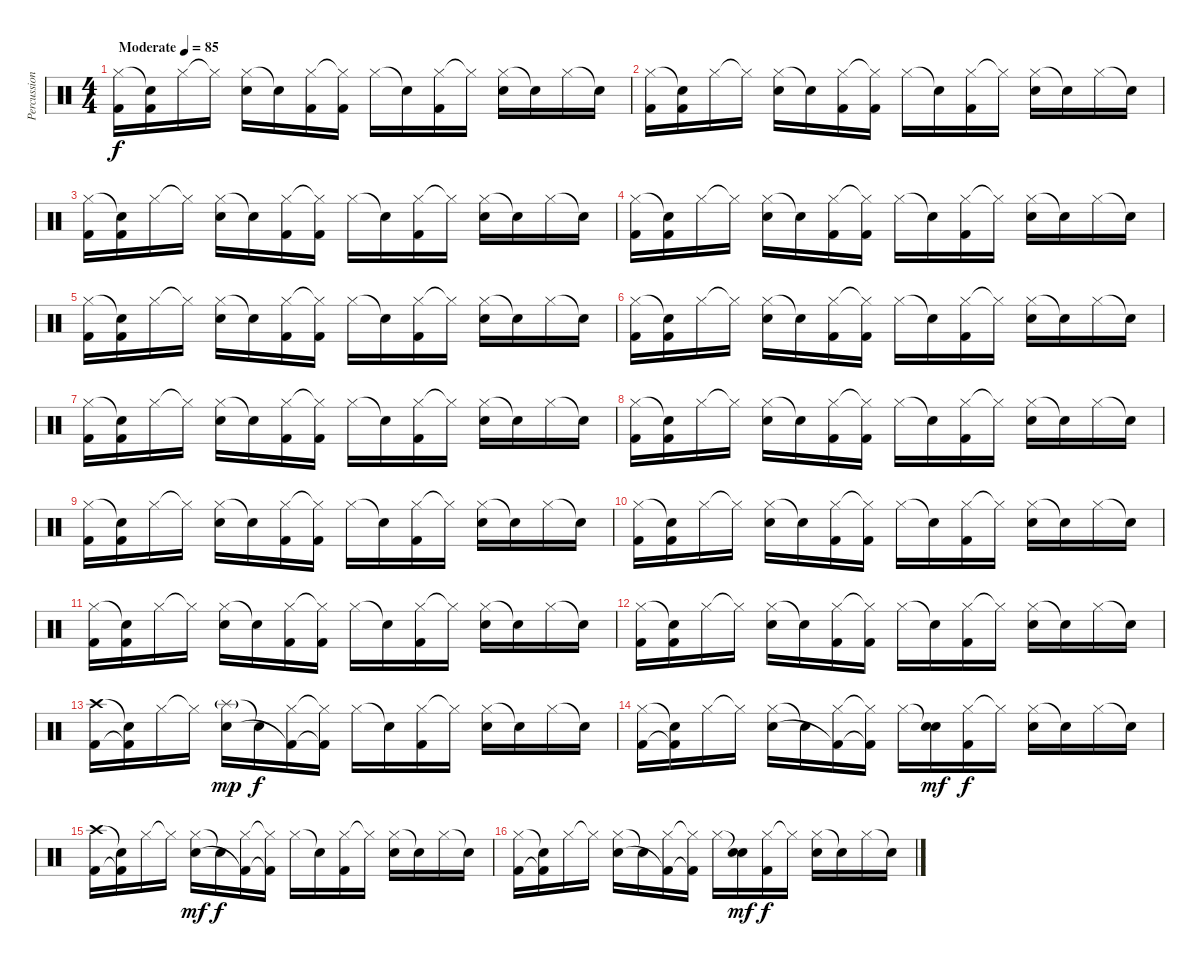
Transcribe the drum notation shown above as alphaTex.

\track ("Percussion" "Percussion") {instrument percussion}
\staff {score}
\articulation defaults
\ts (4 4)
\tempo (85 "Moderate")
\clef neutral
\ks c
("Hi-Hat (closed)" "Kick (hit) 2").16{dy f} ("Snare (hit)"{t} "Kick (hit) 2").16 "Hi-Hat (closed)".16 "Hi-Hat (closed)"{t}.16 ("Hi-Hat (closed)" "Snare (hit) 2").16 "Snare (hit)"{t}.16 ("Hi-Hat (closed)" "Kick (hit) 2").16 ("Hi-Hat (closed)"{t} "Kick (hit) 2").16 "Hi-Hat (closed)".16 "Snare (hit)"{t}.16 ("Hi-Hat (closed)" "Kick (hit) 2").16 "Hi-Hat (closed)"{t}.16 ("Hi-Hat (closed)" "Snare (hit) 2").16 "Snare (hit)"{t}.16 "Hi-Hat (closed)".16 "Snare (hit)"{t}.16 |
("Hi-Hat (closed)" "Kick (hit) 2").16 ("Snare (hit)"{t} "Kick (hit) 2").16 "Hi-Hat (closed)".16 "Hi-Hat (closed)"{t}.16 ("Hi-Hat (closed)" "Snare (hit) 2").16 "Snare (hit)"{t}.16 ("Hi-Hat (closed)" "Kick (hit) 2").16 ("Hi-Hat (closed)"{t} "Kick (hit) 2").16 "Hi-Hat (closed)".16 "Snare (hit)"{t}.16 ("Hi-Hat (closed)" "Kick (hit) 2").16 "Hi-Hat (closed)"{t}.16 ("Hi-Hat (closed)" "Snare (hit) 2").16 "Snare (hit)"{t}.16 "Hi-Hat (closed)".16 "Snare (hit)"{t}.16 |
("Hi-Hat (closed)" "Kick (hit) 2").16 ("Snare (hit)"{t} "Kick (hit) 2").16 "Hi-Hat (closed)".16 "Hi-Hat (closed)"{t}.16 ("Hi-Hat (closed)" "Snare (hit) 2").16 "Snare (hit)"{t}.16 ("Hi-Hat (closed)" "Kick (hit) 2").16 ("Hi-Hat (closed)"{t} "Kick (hit) 2").16 "Hi-Hat (closed)".16 "Snare (hit)"{t}.16 ("Hi-Hat (closed)" "Kick (hit) 2").16 "Hi-Hat (closed)"{t}.16 ("Hi-Hat (closed)" "Snare (hit) 2").16 "Snare (hit)"{t}.16 "Hi-Hat (closed)".16 "Snare (hit)"{t}.16 |
("Hi-Hat (closed)" "Kick (hit) 2").16 ("Snare (hit)"{t} "Kick (hit) 2").16 "Hi-Hat (closed)".16 "Hi-Hat (closed)"{t}.16 ("Hi-Hat (closed)" "Snare (hit) 2").16 "Snare (hit)"{t}.16 ("Hi-Hat (closed)" "Kick (hit) 2").16 ("Hi-Hat (closed)"{t} "Kick (hit) 2").16 "Hi-Hat (closed)".16 "Snare (hit)"{t}.16 ("Hi-Hat (closed)" "Kick (hit) 2").16 "Hi-Hat (closed)"{t}.16 ("Hi-Hat (closed)" "Snare (hit) 2").16 "Snare (hit)"{t}.16 "Hi-Hat (closed)".16 "Snare (hit)"{t}.16 |
("Hi-Hat (closed)" "Kick (hit) 2").16 ("Snare (hit)"{t} "Kick (hit) 2").16 "Hi-Hat (closed)".16 "Hi-Hat (closed)"{t}.16 ("Hi-Hat (closed)" "Snare (hit) 2").16 "Snare (hit)"{t}.16 ("Hi-Hat (closed)" "Kick (hit) 2").16 ("Hi-Hat (closed)"{t} "Kick (hit) 2").16 "Hi-Hat (closed)".16 "Snare (hit)"{t}.16 ("Hi-Hat (closed)" "Kick (hit) 2").16 "Hi-Hat (closed)"{t}.16 ("Hi-Hat (closed)" "Snare (hit) 2").16 "Snare (hit)"{t}.16 "Hi-Hat (closed)".16 "Snare (hit)"{t}.16 |
("Hi-Hat (closed)" "Kick (hit) 2").16 ("Snare (hit)"{t} "Kick (hit) 2").16 "Hi-Hat (closed)".16 "Hi-Hat (closed)"{t}.16 ("Hi-Hat (closed)" "Snare (hit) 2").16 "Snare (hit)"{t}.16 ("Hi-Hat (closed)" "Kick (hit) 2").16 ("Hi-Hat (closed)"{t} "Kick (hit) 2").16 "Hi-Hat (closed)".16 "Snare (hit)"{t}.16 ("Hi-Hat (closed)" "Kick (hit) 2").16 "Hi-Hat (closed)"{t}.16 ("Hi-Hat (closed)" "Snare (hit) 2").16 "Snare (hit)"{t}.16 "Hi-Hat (closed)".16 "Snare (hit)"{t}.16 |
("Hi-Hat (closed)" "Kick (hit) 2").16 ("Snare (hit)"{t} "Kick (hit) 2").16 "Hi-Hat (closed)".16 "Hi-Hat (closed)"{t}.16 ("Hi-Hat (closed)" "Snare (hit) 2").16 "Snare (hit)"{t}.16 ("Hi-Hat (closed)" "Kick (hit) 2").16 ("Hi-Hat (closed)"{t} "Kick (hit) 2").16 "Hi-Hat (closed)".16 "Snare (hit)"{t}.16 ("Hi-Hat (closed)" "Kick (hit) 2").16 "Hi-Hat (closed)"{t}.16 ("Hi-Hat (closed)" "Snare (hit) 2").16 "Snare (hit)"{t}.16 "Hi-Hat (closed)".16 "Snare (hit)"{t}.16 |
("Hi-Hat (closed)" "Kick (hit) 2").16 ("Snare (hit)"{t} "Kick (hit) 2").16 "Hi-Hat (closed)".16 "Hi-Hat (closed)"{t}.16 ("Hi-Hat (closed)" "Snare (hit) 2").16 "Snare (hit)"{t}.16 ("Hi-Hat (closed)" "Kick (hit) 2").16 ("Hi-Hat (closed)"{t} "Kick (hit) 2").16 "Hi-Hat (closed)".16 "Snare (hit)"{t}.16 ("Hi-Hat (closed)" "Kick (hit) 2").16 "Hi-Hat (closed)"{t}.16 ("Hi-Hat (closed)" "Snare (hit) 2").16 "Snare (hit)"{t}.16 "Hi-Hat (closed)".16 "Snare (hit)"{t}.16 |
("Hi-Hat (closed)" "Kick (hit) 2").16 ("Snare (hit)"{t} "Kick (hit) 2").16 "Hi-Hat (closed)".16 "Hi-Hat (closed)"{t}.16 ("Hi-Hat (closed)" "Snare (hit) 2").16 "Snare (hit)"{t}.16 ("Hi-Hat (closed)" "Kick (hit) 2").16 ("Hi-Hat (closed)"{t} "Kick (hit) 2").16 "Hi-Hat (closed)".16 "Snare (hit)"{t}.16 ("Hi-Hat (closed)" "Kick (hit) 2").16 "Hi-Hat (closed)"{t}.16 ("Hi-Hat (closed)" "Snare (hit) 2").16 "Snare (hit)"{t}.16 "Hi-Hat (closed)".16 "Snare (hit)"{t}.16 |
("Hi-Hat (closed)" "Kick (hit) 2").16 ("Snare (hit)"{t} "Kick (hit) 2").16 "Hi-Hat (closed)".16 "Hi-Hat (closed)"{t}.16 ("Hi-Hat (closed)" "Snare (hit) 2").16 "Snare (hit)"{t}.16 ("Hi-Hat (closed)" "Kick (hit) 2").16 ("Hi-Hat (closed)"{t} "Kick (hit) 2").16 "Hi-Hat (closed)".16 "Snare (hit)"{t}.16 ("Hi-Hat (closed)" "Kick (hit) 2").16 "Hi-Hat (closed)"{t}.16 ("Hi-Hat (closed)" "Snare (hit) 2").16 "Snare (hit)"{t}.16 "Hi-Hat (closed)".16 "Snare (hit)"{t}.16 |
("Hi-Hat (closed)" "Kick (hit) 2").16 ("Snare (hit)"{t} "Kick (hit) 2").16 "Hi-Hat (closed)".16 "Hi-Hat (closed)"{t}.16 ("Hi-Hat (closed)" "Snare (hit) 2").16 "Snare (hit)"{t}.16 ("Hi-Hat (closed)" "Kick (hit) 2").16 ("Hi-Hat (closed)"{t} "Kick (hit) 2").16 "Hi-Hat (closed)".16 "Snare (hit)"{t}.16 ("Hi-Hat (closed)" "Kick (hit) 2").16 "Hi-Hat (closed)"{t}.16 ("Hi-Hat (closed)" "Snare (hit) 2").16 "Snare (hit)"{t}.16 "Hi-Hat (closed)".16 "Snare (hit)"{t}.16 |
("Hi-Hat (closed)" "Kick (hit) 2").16 ("Snare (hit)"{t} "Kick (hit) 2").16 "Hi-Hat (closed)".16 "Hi-Hat (closed)"{t}.16 ("Hi-Hat (closed)" "Snare (hit) 2").16 "Snare (hit)"{t}.16 ("Hi-Hat (closed)" "Kick (hit) 2").16 ("Hi-Hat (closed)"{t} "Kick (hit) 2").16 "Hi-Hat (closed)".16 "Snare (hit)"{t}.16 ("Hi-Hat (closed)" "Kick (hit) 2").16 "Hi-Hat (closed)"{t}.16 ("Hi-Hat (closed)" "Snare (hit) 2").16 "Snare (hit)"{t}.16 "Hi-Hat (closed)".16 "Snare (hit)"{t}.16 |
("Crash high (hit)" "Kick (hit) 2").16 ("Snare (hit)"{t} "Kick (hit) 2"{t}).16 "Hi-Hat (closed)".16 "Hi-Hat (closed)"{t}.16 ("Splash (hit)"{g} "Snare (hit) 2").16{dy mp} "Snare (hit)"{t}.16{dy f} ("Hi-Hat (closed)" "Kick (hit) 2"{t}).16 ("Hi-Hat (closed)"{t} "Kick (hit) 2"{t}).16 "Hi-Hat (closed)".16 "Snare (hit)"{t}.16 ("Hi-Hat (closed)" "Kick (hit) 2").16 "Hi-Hat (closed)"{t}.16 ("Hi-Hat (closed)" "Snare (hit) 2").16 "Snare (hit)"{t}.16 "Hi-Hat (closed)".16 "Snare (hit)"{t}.16 |
("Hi-Hat (closed)" "Kick (hit) 2").16 ("Snare (hit)"{t} "Kick (hit) 2"{t}).16 "Hi-Hat (closed)".16 "Hi-Hat (closed)"{t}.16 ("Hi-Hat (closed)" "Snare (hit) 2").16 "Snare (hit)"{t}.16 ("Hi-Hat (closed)" "Kick (hit) 2"{t}).16 ("Hi-Hat (closed)"{t} "Kick (hit) 2"{t}).16 "Hi-Hat (closed)".16 ("Snare (hit)"{t} "Snare (hit) 2").16{dy mf} ("Hi-Hat (closed)" "Kick (hit) 2").16{dy f} "Hi-Hat (closed)"{t}.16 ("Hi-Hat (closed)" "Snare (hit) 2").16 "Snare (hit)"{t}.16 "Hi-Hat (closed)".16 "Snare (hit)"{t}.16 |
("Crash high (hit)" "Kick (hit) 2").16 ("Snare (hit)"{t} "Kick (hit) 2"{t}).16 "Hi-Hat (closed)".16 "Hi-Hat (closed)"{t}.16 ("Hi-Hat (closed)" "Snare (hit) 2").16{dy mf} "Snare (hit)"{t}.16{dy f} ("Hi-Hat (closed)" "Kick (hit) 2"{t}).16 ("Hi-Hat (closed)"{t} "Kick (hit) 2"{t}).16 "Hi-Hat (closed)".16 "Snare (hit)"{t}.16 ("Hi-Hat (closed)" "Kick (hit) 2").16 "Hi-Hat (closed)"{t}.16 ("Hi-Hat (closed)" "Snare (hit) 2").16 "Snare (hit)"{t}.16 "Hi-Hat (closed)".16 "Snare (hit)"{t}.16 |
("Hi-Hat (closed)" "Kick (hit) 2").16 ("Snare (hit)"{t} "Kick (hit) 2"{t}).16 "Hi-Hat (closed)".16 "Hi-Hat (closed)"{t}.16 ("Hi-Hat (closed)" "Snare (hit) 2").16 "Snare (hit)"{t}.16 ("Hi-Hat (closed)" "Kick (hit) 2"{t}).16 ("Hi-Hat (closed)"{t} "Kick (hit) 2"{t}).16 "Hi-Hat (closed)".16 ("Snare (hit)"{t} "Snare (hit) 2").16{dy mf} ("Hi-Hat (closed)" "Kick (hit) 2").16{dy f} "Hi-Hat (closed)"{t}.16 ("Hi-Hat (closed)" "Snare (hit) 2").16 "Snare (hit)"{t}.16 "Hi-Hat (closed)".16 "Snare (hit)"{t}.16
